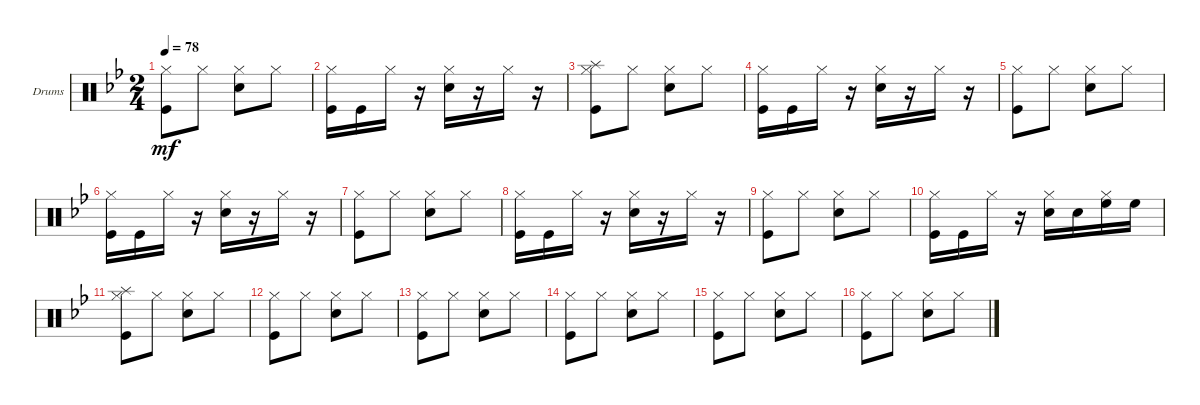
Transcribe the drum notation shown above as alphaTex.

\defaultSystemsLayout 4
\bracketExtendMode groupsimilarinstruments
\firstSystemTrackNameOrientation horizontal
\otherSystemsTrackNameOrientation horizontal
\track ("Катя" "Drums") {instrument percussion}
\staff {score}
\articulation defaults
\ts (2 4)
\tempo 78
\clef neutral
\ks gminor
("Kick (hit)" "Hi-Hat (closed)").8{dy mf} "Hi-Hat (closed)".8 ("Hi-Hat (closed)" "Snare (hit) 2").8 "Hi-Hat (closed)".8 |
("Hi-Hat (closed)" "Kick (hit)").16 "Kick (hit)".16 "Hi-Hat (closed)".16 r.16 ("Hi-Hat (closed)" "Snare (hit) 2").16 r.16 "Hi-Hat (closed)".16 r.16 |
("Kick (hit)" "Hi-Hat (closed)" "Splash (hit)").8 "Hi-Hat (closed)".8 ("Hi-Hat (closed)" "Snare (hit) 2").8 "Hi-Hat (closed)".8 |
("Hi-Hat (closed)" "Kick (hit)").16 "Kick (hit)".16 "Hi-Hat (closed)".16 r.16 ("Hi-Hat (closed)" "Snare (hit) 2").16 r.16 "Hi-Hat (closed)".16 r.16 |
("Kick (hit)" "Hi-Hat (closed)").8 "Hi-Hat (closed)".8 ("Hi-Hat (closed)" "Snare (hit) 2").8 "Hi-Hat (closed)".8 |
("Hi-Hat (closed)" "Kick (hit)").16 "Kick (hit)".16 "Hi-Hat (closed)".16 r.16 ("Hi-Hat (closed)" "Snare (hit) 2").16 r.16 "Hi-Hat (closed)".16 r.16 |
("Kick (hit)" "Hi-Hat (closed)").8 "Hi-Hat (closed)".8 ("Hi-Hat (closed)" "Snare (hit) 2").8 "Hi-Hat (closed)".8 |
("Hi-Hat (closed)" "Kick (hit)").16 "Kick (hit)".16 "Hi-Hat (closed)".16 r.16 ("Hi-Hat (closed)" "Snare (hit) 2").16 r.16 "Hi-Hat (closed)".16 r.16 |
("Kick (hit)" "Hi-Hat (closed)").8 "Hi-Hat (closed)".8 ("Hi-Hat (closed)" "Snare (hit) 2").8 "Hi-Hat (closed)".8 |
("Hi-Hat (closed)" "Kick (hit)").16 "Kick (hit)".16 "Hi-Hat (closed)".16 r.16 ("Hi-Hat (closed)" "Snare (hit) 2").16 "Snare (hit) 2".16 ("Hi-Hat (closed)" "High Floor Tom (hit)").16 "High Floor Tom (hit)".16 |
("Kick (hit)" "Hi-Hat (closed)" "Splash (hit)").8 "Hi-Hat (closed)".8 ("Hi-Hat (closed)" "Snare (hit) 2").8 "Hi-Hat (closed)".8 |
("Hi-Hat (closed)" "Kick (hit)").8 "Hi-Hat (closed)".8 ("Hi-Hat (closed)" "Snare (hit) 2").8 "Hi-Hat (closed)".8 |
("Kick (hit)" "Hi-Hat (closed)").8 "Hi-Hat (closed)".8 ("Hi-Hat (closed)" "Snare (hit) 2").8 "Hi-Hat (closed)".8 |
("Hi-Hat (closed)" "Kick (hit)").8 "Hi-Hat (closed)".8 ("Hi-Hat (closed)" "Snare (hit) 2").8 "Hi-Hat (closed)".8 |
("Kick (hit)" "Hi-Hat (closed)").8 "Hi-Hat (closed)".8 ("Hi-Hat (closed)" "Snare (hit) 2").8 "Hi-Hat (closed)".8 |
("Hi-Hat (closed)" "Kick (hit)").8 "Hi-Hat (closed)".8 ("Hi-Hat (closed)" "Snare (hit) 2").8 "Hi-Hat (closed)".8
